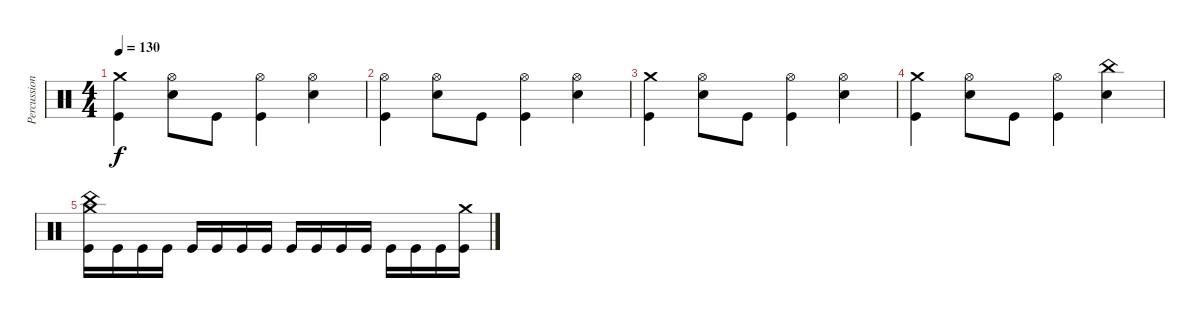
\track ("Percussion" "Percussion") {instrument percussion}
\staff {score}
\articulation defaults
\ts (4 4)
\tempo 130
\clef neutral
\ks c
("Crash medium (hit)" "Kick (hit)").4{dy f} ("Hi-Hat (open)" "Snare (hit) 2").8 "Kick (hit)".8 ("Hi-Hat (open)" "Kick (hit)").4 ("Hi-Hat (open)" "Snare (hit) 2").4 |
("Hi-Hat (open)" "Kick (hit)").4 ("Hi-Hat (open)" "Snare (hit) 2").8 "Kick (hit)".8 ("Hi-Hat (open)" "Kick (hit)").4 ("Hi-Hat (open)" "Snare (hit) 2").4 |
("Crash medium (hit)" "Kick (hit)").4 ("Hi-Hat (open)" "Snare (hit) 2").8 "Kick (hit)".8 ("Hi-Hat (open)" "Kick (hit)").4 ("Hi-Hat (open)" "Snare (hit) 2").4 |
("Crash medium (hit)" "Kick (hit)").4 ("Hi-Hat (open)" "Snare (hit) 2").8 "Kick (hit)".8 ("Hi-Hat (open)" "Kick (hit)").4 ("China (hit)" "Snare (hit) 2").4 |
("Crash medium (hit)" "China (hit)" "Kick (hit)").16 "Kick (hit)".16 "Kick (hit)".16 "Kick (hit)".16 "Kick (hit)".16 "Kick (hit)".16 "Kick (hit)".16 "Kick (hit)".16 "Kick (hit)".16 "Kick (hit)".16 "Kick (hit)".16 "Kick (hit)".16 "Kick (hit)".16 "Kick (hit)".16 "Kick (hit)".16 ("Crash medium (hit)" "Kick (hit)").16
